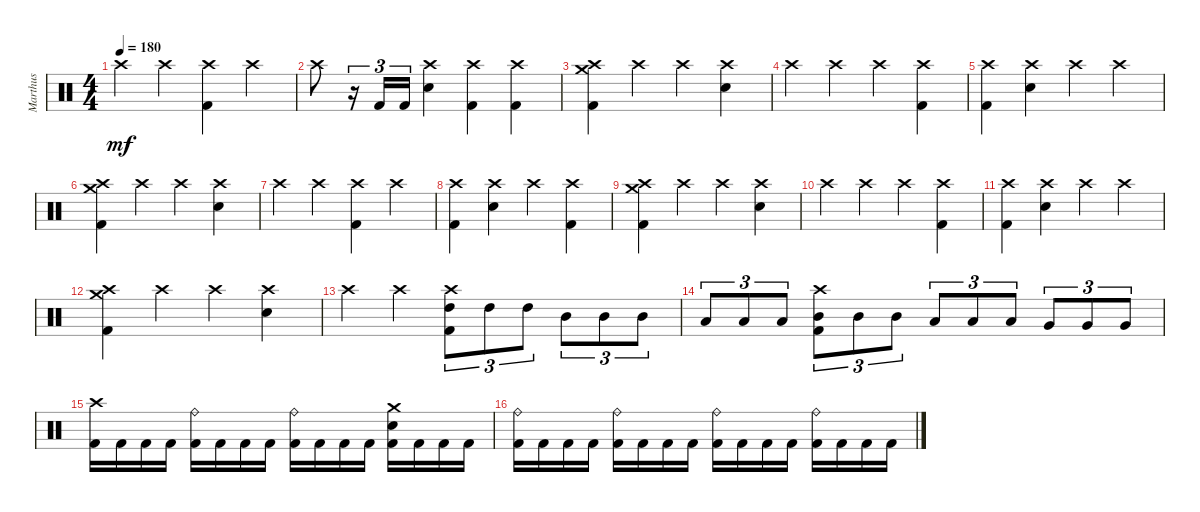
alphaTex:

\track ("Marthus" "Marthus") {instrument percussion}
\staff {score}
\articulation defaults
\ts (4 4)
\tempo 180
\clef neutral
\ks c "Crash high (hit)".4{dy mf} "Crash high (hit)".4
("Crash high (hit)" "Kick (hit) 2").4 "Crash high (hit)".4 |
"Crash high (hit)".8 r.16{tu (3 2)} "Kick (hit) 2".16{tu (3 2)} "Kick (hit) 2".16{tu (3 2)} ("Crash high (hit)" "Electric Snare (hit)").4 ("Crash high (hit)" "Kick (hit) 2").4 ("Crash high (hit)" "Kick (hit) 2").4 |
("Crash medium (hit)" "Crash high (hit)" "Kick (hit) 2").4 "Crash high (hit)".4 "Crash high (hit)".4 ("Crash high (hit)" "Electric Snare (hit)").4 |
"Crash high (hit)".4 "Crash high (hit)".4 "Crash high (hit)".4 ("Crash high (hit)" "Kick (hit) 2").4 |
("Crash high (hit)" "Kick (hit) 2").4 ("Crash high (hit)" "Electric Snare (hit)").4 "Crash high (hit)".4 "Crash high (hit)".4 |
("Crash medium (hit)" "Crash high (hit)" "Kick (hit) 2").4 "Crash high (hit)".4 "Crash high (hit)".4 ("Crash high (hit)" "Electric Snare (hit)").4 |
"Crash high (hit)".4 "Crash high (hit)".4 ("Crash high (hit)" "Kick (hit) 2").4 "Crash high (hit)".4 |
("Crash high (hit)" "Kick (hit) 2").4 ("Crash high (hit)" "Electric Snare (hit)").4 "Crash high (hit)".4 ("Crash high (hit)" "Kick (hit) 2").4 |
("Crash medium (hit)" "Crash high (hit)" "Kick (hit) 2").4 "Crash high (hit)".4 "Crash high (hit)".4 ("Crash high (hit)" "Electric Snare (hit)").4 |
"Crash high (hit)".4 "Crash high (hit)".4 "Crash high (hit)".4 ("Crash high (hit)" "Kick (hit) 2").4 |
("Crash high (hit)" "Kick (hit) 2").4 ("Crash high (hit)" "Electric Snare (hit)").4 "Crash high (hit)".4 "Crash high (hit)".4 |
("Crash medium (hit)" "Crash high (hit)" "Kick (hit) 2").4 "Crash high (hit)".4 "Crash high (hit)".4 ("Crash high (hit)" "Electric Snare (hit)").4 |
"Crash high (hit)".4 "Crash high (hit)".4 ("Crash high (hit)" "High Tom (hit)" "Kick (hit) 2").8{tu (3 2)} "High Tom (hit)".8{tu (3 2)} "High Tom (hit)".8{tu (3 2)} "Mid Tom (hit)".8{tu (3 2)} "Mid Tom (hit)".8{tu (3 2)} "Mid Tom (hit)".8{tu (3 2)} |
"Low Tom (hit)".8{tu (3 2)} "Low Tom (hit)".8{tu (3 2)} "Low Tom (hit)".8{tu (3 2)} ("Crash high (hit)" "Mid Tom (hit)" "Kick (hit) 2").8{tu (3 2)} "Mid Tom (hit)".8{tu (3 2)} "Mid Tom (hit)".8{tu (3 2)} "Low Tom (hit)".8{tu (3 2)} "Low Tom (hit)".8{tu (3 2)} "Low Tom (hit)".8{tu (3 2)} "Very Low Tom (hit)".8{tu (3 2)} "Very Low Tom (hit)".8{tu (3 2)} "Very Low Tom (hit)".8{tu (3 2)} |
("Crash high (hit)" "Kick (hit) 2").16 "Kick (hit) 2".16 "Kick (hit) 2".16 "Kick (hit) 2".16 ("Ride (bell)" "Kick (hit) 2").16 "Kick (hit) 2".16 "Kick (hit) 2".16 "Kick (hit) 2".16 ("Ride (bell)" "Kick (hit) 2").16 "Kick (hit) 2".16 "Kick (hit) 2".16 "Kick (hit) 2".16 ("Crash medium (hit)" "Electric Snare (hit)" "Kick (hit) 2").16 "Kick (hit) 2".16 "Kick (hit) 2".16 "Kick (hit) 2".16 |
("Ride (bell)" "Kick (hit) 2").16 "Kick (hit) 2".16 "Kick (hit) 2".16 "Kick (hit) 2".16 ("Ride (bell)" "Kick (hit) 2").16 "Kick (hit) 2".16 "Kick (hit) 2".16 "Kick (hit) 2".16 ("Ride (bell)" "Kick (hit) 2").16 "Kick (hit) 2".16 "Kick (hit) 2".16 "Kick (hit) 2".16 ("Ride (bell)" "Kick (hit) 2").16 "Kick (hit) 2".16 "Kick (hit) 2".16 "Kick (hit) 2".16
